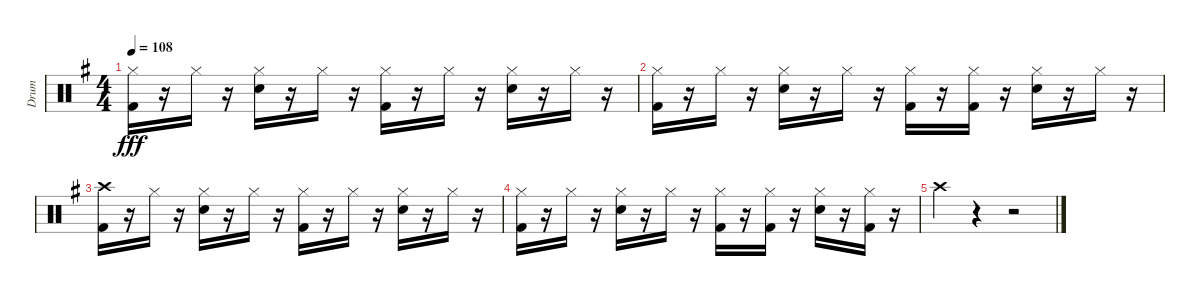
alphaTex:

\track ("Drum" "Drum") {instrument percussion}
\staff {score}
\articulation defaults
\ts (4 4)
\tempo 108
\clef neutral
\ks g
("Hi-Hat (closed)" "Kick (hit) 2").16{dy fff} r.16 "Hi-Hat (closed)".16 r.16 ("Hi-Hat (closed)" "Electric Snare (hit)").16 r.16 "Hi-Hat (closed)".16 r.16 ("Hi-Hat (closed)" "Kick (hit) 2").16 r.16 "Hi-Hat (closed)".16 r.16 ("Hi-Hat (closed)" "Electric Snare (hit)").16 r.16 "Hi-Hat (closed)".16 r.16 |
("Hi-Hat (closed)" "Kick (hit) 2").16 r.16 "Hi-Hat (closed)".16 r.16 ("Hi-Hat (closed)" "Electric Snare (hit)").16 r.16 "Hi-Hat (closed)".16 r.16 ("Hi-Hat (closed)" "Kick (hit) 2").16 r.16 ("Hi-Hat (closed)" "Kick (hit) 2").16 r.16 ("Hi-Hat (closed)" "Electric Snare (hit)").16 r.16 "Hi-Hat (closed)".16 r.16 |
("Crash high (hit)" "Kick (hit) 2").16 r.16 "Hi-Hat (closed)".16 r.16 ("Hi-Hat (closed)" "Electric Snare (hit)").16 r.16 "Hi-Hat (closed)".16 r.16 ("Hi-Hat (closed)" "Kick (hit) 2").16 r.16 "Hi-Hat (closed)".16 r.16 ("Hi-Hat (closed)" "Electric Snare (hit)").16 r.16 "Hi-Hat (closed)".16 r.16 |
("Hi-Hat (closed)" "Kick (hit) 2").16 r.16 "Hi-Hat (closed)".16 r.16 ("Hi-Hat (closed)" "Electric Snare (hit)").16 r.16 "Hi-Hat (closed)".16 r.16 ("Hi-Hat (closed)" "Kick (hit) 2").16 r.16 ("Hi-Hat (closed)" "Kick (hit) 2").16 r.16 ("Hi-Hat (closed)" "Electric Snare (hit)").16 r.16 ("Hi-Hat (closed)" "Kick (hit) 2").16 r.16 |
"Crash high (hit)".4 r.4 r.2
